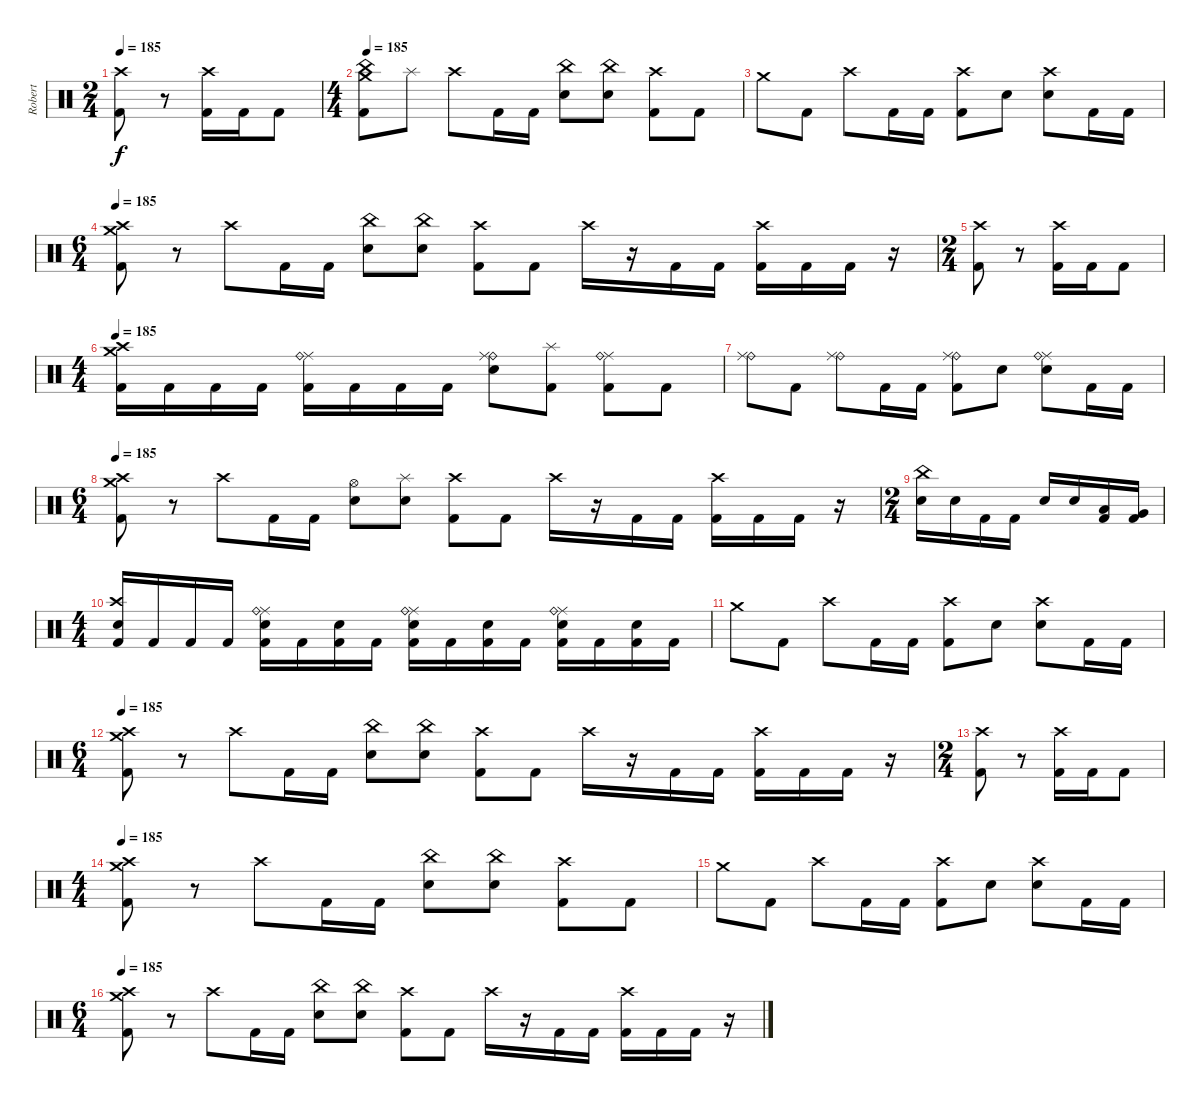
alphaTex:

\track ("Robert" "Robert") {instrument percussion}
\staff {score}
\articulation defaults
\ts (2 4)
\tempo 185
\clef neutral
\ks c
("Kick (hit) 2" "Crash high (hit)").8{dy f} r.8 ("Kick (hit) 2" "Crash high (hit)").16 "Kick (hit) 2".16 "Kick (hit) 2".8 |
\ts (4 4)
\tempo 185
("China (hit)" "Kick (hit) 2" "Crash medium (hit)").8 "Splash (hit)".8 "Crash high (hit)".8 "Kick (hit) 2".16 "Kick (hit) 2".16 ("China (hit)" "Electric Snare (hit)").8 ("China (hit)" "Electric Snare (hit)").8 ("Kick (hit) 2" "Crash high (hit)").8 "Kick (hit) 2".8 |
"Crash medium (hit)".8 "Kick (hit) 2".8 "Crash high (hit)".8 "Kick (hit) 2".16 "Kick (hit) 2".16 ("Crash high (hit)" "Kick (hit) 2").8 "Electric Snare (hit)".8 ("Crash high (hit)" "Electric Snare (hit)").8 "Kick (hit) 2".16 "Kick (hit) 2".16 |
\ts (6 4)
\tempo 185
("Crash high (hit)" "Kick (hit) 2" "Crash medium (hit)").8 r.8 "Crash high (hit)".8 "Kick (hit) 2".16 "Kick (hit) 2".16 ("China (hit)" "Electric Snare (hit)").8 ("China (hit)" "Electric Snare (hit)").8 ("Kick (hit) 2" "Crash high (hit)").8 "Kick (hit) 2".8 "Crash high (hit)".16 r.16 "Kick (hit) 2".16 "Kick (hit) 2".16 ("Kick (hit) 2" "Crash high (hit)").16 "Kick (hit) 2".16 "Kick (hit) 2".16 r.16 |
\ts (2 4)
("Kick (hit) 2" "Crash high (hit)").8 r.8 ("Kick (hit) 2" "Crash high (hit)").16 "Kick (hit) 2".16 "Kick (hit) 2".8 |
\ts (4 4)
\tempo 185
("Crash high (hit)" "Kick (hit) 2" "Crash medium (hit)").16 "Kick (hit) 2".16 "Kick (hit) 2".16 "Kick (hit) 2".16 ("Kick (hit) 2" "Ride (middle)" "Ride (bell)").16 "Kick (hit) 2".16 "Kick (hit) 2".16 "Kick (hit) 2".16 ("Ride (bell)" "Ride (middle)" "Electric Snare (hit)").8 ("Splash (hit)" "Kick (hit) 2").8 ("Kick (hit) 2" "Ride (middle)" "Ride (bell)").8 "Kick (hit) 2".8 |
("Ride (bell)" "Ride (middle)").8 "Kick (hit) 2".8 ("Ride (bell)" "Ride (middle)").8 "Kick (hit) 2".16 "Kick (hit) 2".16 ("Ride (bell)" "Ride (middle)" "Kick (hit) 2").8 "Electric Snare (hit)".8 ("Ride (middle)" "Ride (bell)" "Electric Snare (hit)").8 "Kick (hit) 2".16 "Kick (hit) 2".16 |
\ts (6 4)
\tempo 185
("Crash high (hit)" "Kick (hit) 2" "Crash medium (hit)").8 r.8 "Crash high (hit)".8 "Kick (hit) 2".16 "Kick (hit) 2".16 ("Hi-Hat (open)" "Electric Snare (hit)").8 ("Splash (hit)" "Electric Snare (hit)").8 ("Kick (hit) 2" "Crash high (hit)").8 "Kick (hit) 2".8 "Crash high (hit)".16 r.16 "Kick (hit) 2".16 "Kick (hit) 2".16 ("Kick (hit) 2" "Crash high (hit)").16 "Kick (hit) 2".16 "Kick (hit) 2".16 r.16 |
\ts (2 4)
("China (hit)" "Electric Snare (hit)").16 "Electric Snare (hit)".16 "Kick (hit) 2".16 "Kick (hit) 2".16 "Electric Snare (hit)".16 "Electric Snare (hit)".16 ("Low Tom (hit)" "Kick (hit) 2").16 ("Very Low Tom (hit)" "Kick (hit) 2").16 |
\ts (4 4)
("Crash high (hit)" "Electric Snare (hit)" "Kick (hit) 2").16 "Kick (hit) 2".16 "Kick (hit) 2".16 "Kick (hit) 2".16 ("Ride (middle)" "Electric Snare (hit)" "Ride (bell)" "Kick (hit) 2").16 "Kick (hit) 2".16 ("Electric Snare (hit)" "Kick (hit) 2").16 "Kick (hit) 2".16 ("Ride (middle)" "Electric Snare (hit)" "Ride (bell)" "Kick (hit) 2").16 "Kick (hit) 2".16 ("Electric Snare (hit)" "Kick (hit) 2").16 "Kick (hit) 2".16 ("Ride (middle)" "Ride (bell)" "Electric Snare (hit)" "Kick (hit) 2").16 "Kick (hit) 2".16 ("Electric Snare (hit)" "Kick (hit) 2").16 "Kick (hit) 2".16 |
"Crash medium (hit)".8 "Kick (hit) 2".8 "Crash high (hit)".8 "Kick (hit) 2".16 "Kick (hit) 2".16 ("Crash high (hit)" "Kick (hit) 2").8 "Electric Snare (hit)".8 ("Crash high (hit)" "Electric Snare (hit)").8 "Kick (hit) 2".16 "Kick (hit) 2".16 |
\ts (6 4)
\tempo 185
("Crash high (hit)" "Kick (hit) 2" "Crash medium (hit)").8 r.8 "Crash high (hit)".8 "Kick (hit) 2".16 "Kick (hit) 2".16 ("China (hit)" "Electric Snare (hit)").8 ("China (hit)" "Electric Snare (hit)").8 ("Kick (hit) 2" "Crash high (hit)").8 "Kick (hit) 2".8 "Crash high (hit)".16 r.16 "Kick (hit) 2".16 "Kick (hit) 2".16 ("Kick (hit) 2" "Crash high (hit)").16 "Kick (hit) 2".16 "Kick (hit) 2".16 r.16 |
\ts (2 4)
("Kick (hit) 2" "Crash high (hit)").8 r.8 ("Kick (hit) 2" "Crash high (hit)").16 "Kick (hit) 2".16 "Kick (hit) 2".8 |
\ts (4 4)
\tempo 185
("Crash high (hit)" "Kick (hit) 2" "Crash medium (hit)").8 r.8 "Crash high (hit)".8 "Kick (hit) 2".16 "Kick (hit) 2".16 ("China (hit)" "Electric Snare (hit)").8 ("China (hit)" "Electric Snare (hit)").8 ("Kick (hit) 2" "Crash high (hit)").8 "Kick (hit) 2".8 |
"Crash medium (hit)".8 "Kick (hit) 2".8 "Crash high (hit)".8 "Kick (hit) 2".16 "Kick (hit) 2".16 ("Crash high (hit)" "Kick (hit) 2").8 "Electric Snare (hit)".8 ("Crash high (hit)" "Electric Snare (hit)").8 "Kick (hit) 2".16 "Kick (hit) 2".16 |
\ts (6 4)
\tempo 185
("Crash high (hit)" "Kick (hit) 2" "Crash medium (hit)").8 r.8 "Crash high (hit)".8 "Kick (hit) 2".16 "Kick (hit) 2".16 ("China (hit)" "Electric Snare (hit)").8 ("China (hit)" "Electric Snare (hit)").8 ("Kick (hit) 2" "Crash high (hit)").8 "Kick (hit) 2".8 "Crash high (hit)".16 r.16 "Kick (hit) 2".16 "Kick (hit) 2".16 ("Kick (hit) 2" "Crash high (hit)").16 "Kick (hit) 2".16 "Kick (hit) 2".16 r.16
